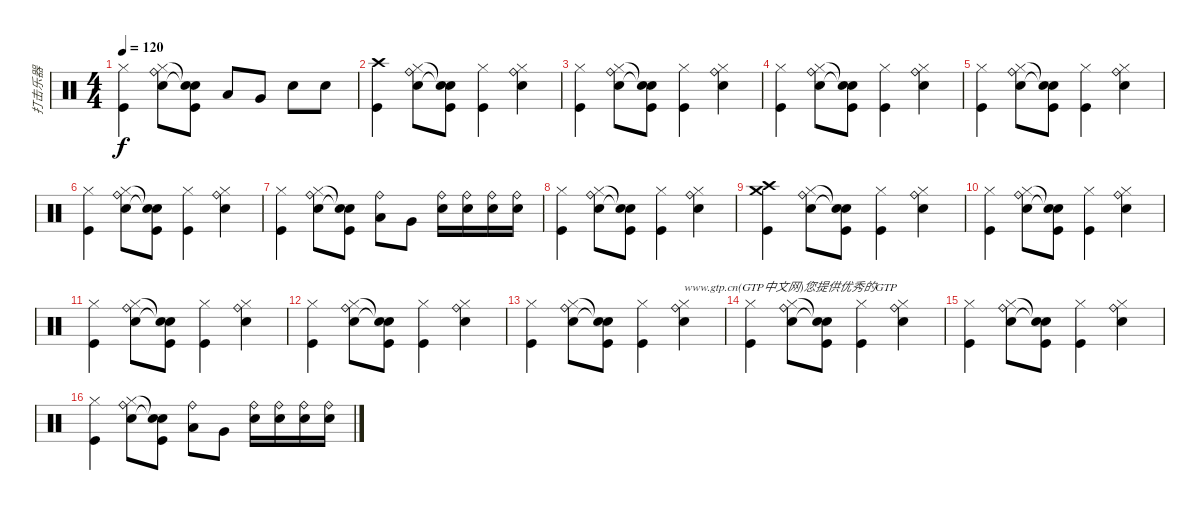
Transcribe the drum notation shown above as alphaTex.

\track ("打击乐器" "打击乐器") {instrument percussion}
\staff {score}
\articulation defaults
\ts (4 4)
\tempo 120
\clef neutral
\ks c
("Hi-Hat (closed)" "Kick (hit)").4{dy f} ("Hi-Hat (closed)" "Snare (hit) 2" "Ride (bell)").8 ("Snare (hit)"{t} "Snare (hit)"{t} "Kick (hit)").8 "Low Tom (hit)".8 "Very Low Tom (hit)".8 "Snare (hit) 2".8 "Snare (hit) 2".8 |
("Crash high (hit)" "Kick (hit)").4 ("Hi-Hat (closed)" "Snare (hit) 2" "Ride (bell)").8 ("Snare (hit)"{t} "Snare (hit)"{t} "Kick (hit)").8 ("Hi-Hat (closed)" "Kick (hit)").4 ("Hi-Hat (closed)" "Snare (hit) 2" "Ride (bell)").4 |
("Hi-Hat (closed)" "Kick (hit)").4 ("Hi-Hat (closed)" "Snare (hit) 2" "Ride (bell)").8 ("Snare (hit)"{t} "Snare (hit)"{t} "Kick (hit)").8 ("Hi-Hat (closed)" "Kick (hit)").4 ("Hi-Hat (closed)" "Snare (hit) 2" "Ride (bell)").4 |
("Hi-Hat (closed)" "Kick (hit)").4 ("Hi-Hat (closed)" "Snare (hit) 2" "Ride (bell)").8 ("Snare (hit)"{t} "Snare (hit)"{t} "Kick (hit)").8 ("Hi-Hat (closed)" "Kick (hit)").4 ("Hi-Hat (closed)" "Snare (hit) 2" "Ride (bell)").4 |
("Hi-Hat (closed)" "Kick (hit)").4 ("Hi-Hat (closed)" "Snare (hit) 2" "Ride (bell)").8 ("Snare (hit)"{t} "Snare (hit)"{t} "Kick (hit)").8 ("Hi-Hat (closed)" "Kick (hit)").4 ("Hi-Hat (closed)" "Snare (hit) 2" "Ride (bell)").4 |
("Hi-Hat (closed)" "Kick (hit)").4 ("Hi-Hat (closed)" "Snare (hit) 2" "Ride (bell)").8 ("Snare (hit)"{t} "Snare (hit)"{t} "Kick (hit)").8 ("Hi-Hat (closed)" "Kick (hit)").4 ("Hi-Hat (closed)" "Snare (hit) 2" "Ride (bell)").4 |
("Hi-Hat (closed)" "Kick (hit)").4 ("Hi-Hat (closed)" "Snare (hit) 2" "Ride (bell)").8 ("Snare (hit)"{t} "Snare (hit)"{t} "Kick (hit)").8 ("Low Tom (hit)" "Ride (bell)").8 "Very Low Tom (hit)".8 ("Snare (hit) 2" "Ride (bell)").16 ("Snare (hit) 2" "Ride (bell)").16 ("Snare (hit) 2" "Ride (bell)").16 ("Snare (hit) 2" "Ride (bell)").16 |
("Hi-Hat (closed)" "Kick (hit)").4 ("Hi-Hat (closed)" "Snare (hit) 2" "Ride (bell)").8 ("Snare (hit)"{t} "Snare (hit)"{t} "Kick (hit)").8 ("Hi-Hat (closed)" "Kick (hit)").4 ("Hi-Hat (closed)" "Snare (hit) 2" "Ride (bell)").4 |
("Crash medium (hit)" "Crash high (hit)" "Kick (hit)").4 ("Hi-Hat (closed)" "Snare (hit) 2" "Ride (bell)").8 ("Snare (hit)"{t} "Snare (hit)"{t} "Kick (hit)").8 ("Hi-Hat (closed)" "Kick (hit)").4 ("Hi-Hat (closed)" "Snare (hit) 2" "Ride (bell)").4 |
("Hi-Hat (closed)" "Kick (hit)").4 ("Hi-Hat (closed)" "Snare (hit) 2" "Ride (bell)").8 ("Snare (hit)"{t} "Snare (hit)"{t} "Kick (hit)").8 ("Hi-Hat (closed)" "Kick (hit)").4 ("Hi-Hat (closed)" "Snare (hit) 2" "Ride (bell)").4 |
("Hi-Hat (closed)" "Kick (hit)").4 ("Hi-Hat (closed)" "Snare (hit) 2" "Ride (bell)").8 ("Snare (hit)"{t} "Snare (hit)"{t} "Kick (hit)").8 ("Hi-Hat (closed)" "Kick (hit)").4 ("Hi-Hat (closed)" "Snare (hit) 2" "Ride (bell)").4 |
("Hi-Hat (closed)" "Kick (hit)").4 ("Hi-Hat (closed)" "Snare (hit) 2" "Ride (bell)").8 ("Snare (hit)"{t} "Snare (hit)"{t} "Kick (hit)").8 ("Hi-Hat (closed)" "Kick (hit)").4 ("Hi-Hat (closed)" "Snare (hit) 2" "Ride (bell)").4 |
("Hi-Hat (closed)" "Kick (hit)").4 ("Hi-Hat (closed)" "Snare (hit) 2" "Ride (bell)").8 ("Snare (hit)"{t} "Snare (hit)"{t} "Kick (hit)").8 ("Hi-Hat (closed)" "Kick (hit)").4 ("Hi-Hat (closed)" "Snare (hit) 2" "Ride (bell)").4{txt "www.gtp.cn(GTP中文网)您提供优秀的GTP"} |
("Hi-Hat (closed)" "Kick (hit)").4 ("Hi-Hat (closed)" "Snare (hit) 2" "Ride (bell)").8 ("Snare (hit)"{t} "Snare (hit)"{t} "Kick (hit)").8 ("Hi-Hat (closed)" "Kick (hit)").4 ("Hi-Hat (closed)" "Snare (hit) 2" "Ride (bell)").4 |
("Hi-Hat (closed)" "Kick (hit)").4 ("Hi-Hat (closed)" "Snare (hit) 2" "Ride (bell)").8 ("Snare (hit)"{t} "Snare (hit)"{t} "Kick (hit)").8 ("Hi-Hat (closed)" "Kick (hit)").4 ("Hi-Hat (closed)" "Snare (hit) 2" "Ride (bell)").4 |
("Hi-Hat (closed)" "Kick (hit)").4 ("Hi-Hat (closed)" "Snare (hit) 2" "Ride (bell)").8 ("Snare (hit)"{t} "Snare (hit)"{t} "Kick (hit)").8 ("Low Tom (hit)" "Ride (bell)").8 "Very Low Tom (hit)".8 ("Snare (hit) 2" "Ride (bell)").16 ("Snare (hit) 2" "Ride (bell)").16 ("Snare (hit) 2" "Ride (bell)").16 ("Snare (hit) 2" "Ride (bell)").16
